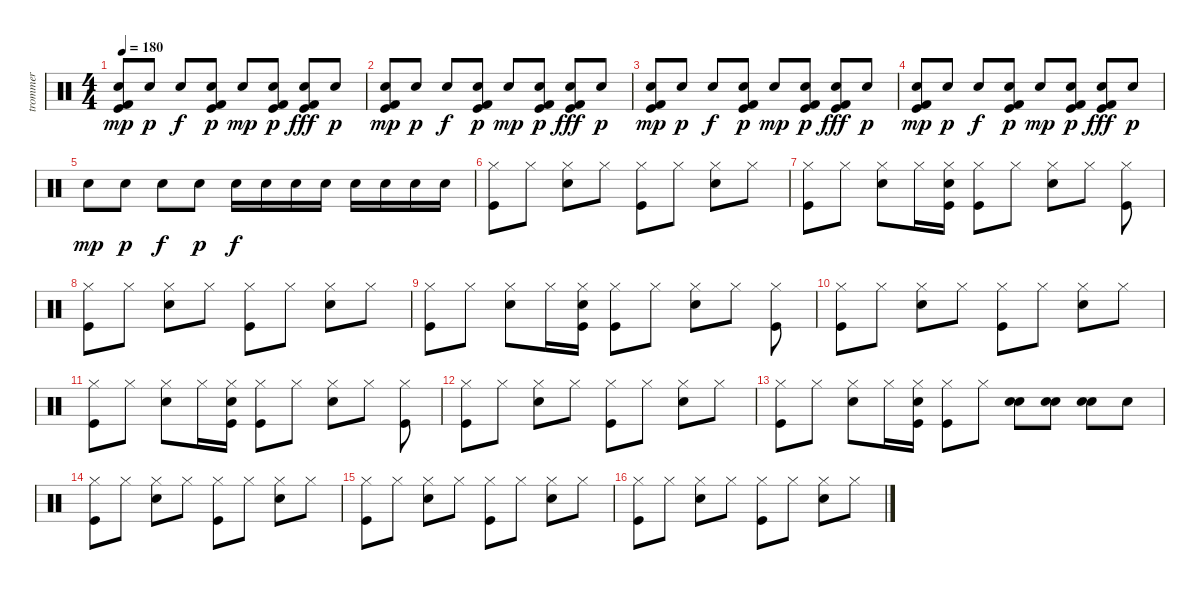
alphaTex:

\track ("trommer" "trommer") {instrument percussion}
\staff {score}
\articulation defaults
\ts (4 4)
\tempo 180
\clef neutral
\ks c
("Kick (hit) 2" "Kick (hit)" "Electric Snare (hit)").8{dy mp} "Electric Snare (hit)".8{dy p} "Electric Snare (hit)".8{dy f} ("Kick (hit) 2" "Kick (hit)" "Electric Snare (hit)").8{dy p} "Electric Snare (hit)".8{dy mp} ("Kick (hit) 2" "Kick (hit)" "Electric Snare (hit)").8{dy p} ("Kick (hit) 2" "Kick (hit)" "Electric Snare (hit)").8{dy fff} "Electric Snare (hit)".8{dy p} |
("Kick (hit) 2" "Kick (hit)" "Electric Snare (hit)").8{dy mp} "Electric Snare (hit)".8{dy p} "Electric Snare (hit)".8{dy f} ("Kick (hit) 2" "Kick (hit)" "Electric Snare (hit)").8{dy p} "Electric Snare (hit)".8{dy mp} ("Kick (hit) 2" "Kick (hit)" "Electric Snare (hit)").8{dy p} ("Kick (hit) 2" "Kick (hit)" "Electric Snare (hit)").8{dy fff} "Electric Snare (hit)".8{dy p} |
("Kick (hit) 2" "Kick (hit)" "Electric Snare (hit)").8{dy mp} "Electric Snare (hit)".8{dy p} "Electric Snare (hit)".8{dy f} ("Kick (hit) 2" "Kick (hit)" "Electric Snare (hit)").8{dy p} "Electric Snare (hit)".8{dy mp} ("Kick (hit) 2" "Kick (hit)" "Electric Snare (hit)").8{dy p} ("Kick (hit) 2" "Kick (hit)" "Electric Snare (hit)").8{dy fff} "Electric Snare (hit)".8{dy p} |
("Kick (hit) 2" "Kick (hit)" "Electric Snare (hit)").8{dy mp} "Electric Snare (hit)".8{dy p} "Electric Snare (hit)".8{dy f} ("Kick (hit) 2" "Kick (hit)" "Electric Snare (hit)").8{dy p} "Electric Snare (hit)".8{dy mp} ("Kick (hit) 2" "Kick (hit)" "Electric Snare (hit)").8{dy p} ("Kick (hit) 2" "Kick (hit)" "Electric Snare (hit)").8{dy fff} "Electric Snare (hit)".8{dy p} |
"Electric Snare (hit)".8{dy mp} "Electric Snare (hit)".8{dy p} "Electric Snare (hit)".8{dy f} "Electric Snare (hit)".8{dy p} "Electric Snare (hit)".16{dy f} "Electric Snare (hit)".16 "Electric Snare (hit)".16 "Electric Snare (hit)".16 "Electric Snare (hit)".16 "Electric Snare (hit)".16 "Electric Snare (hit)".16 "Electric Snare (hit)".16 |
("Kick (hit)" "Hi-Hat (closed)").8 "Hi-Hat (closed)".8 ("Electric Snare (hit)" "Hi-Hat (closed)").8 "Hi-Hat (closed)".8 ("Kick (hit)" "Hi-Hat (closed)").8 "Hi-Hat (closed)".8 ("Electric Snare (hit)" "Hi-Hat (closed)").8 "Hi-Hat (closed)".8 |
("Kick (hit)" "Hi-Hat (closed)").8 "Hi-Hat (closed)".8 ("Electric Snare (hit)" "Hi-Hat (closed)").8 "Hi-Hat (closed)".16 ("Kick (hit)" "Electric Snare (hit)" "Hi-Hat (closed)").16 ("Kick (hit)" "Hi-Hat (closed)").8 "Hi-Hat (closed)".8 ("Electric Snare (hit)" "Hi-Hat (closed)").8 "Hi-Hat (closed)".8 ("Kick (hit)" "Hi-Hat (closed)").8 |
("Kick (hit)" "Hi-Hat (closed)").8 "Hi-Hat (closed)".8 ("Electric Snare (hit)" "Hi-Hat (closed)").8 "Hi-Hat (closed)".8 ("Kick (hit)" "Hi-Hat (closed)").8 "Hi-Hat (closed)".8 ("Electric Snare (hit)" "Hi-Hat (closed)").8 "Hi-Hat (closed)".8 |
("Kick (hit)" "Hi-Hat (closed)").8 "Hi-Hat (closed)".8 ("Electric Snare (hit)" "Hi-Hat (closed)").8 "Hi-Hat (closed)".16 ("Kick (hit)" "Electric Snare (hit)" "Hi-Hat (closed)").16 ("Kick (hit)" "Hi-Hat (closed)").8 "Hi-Hat (closed)".8 ("Electric Snare (hit)" "Hi-Hat (closed)").8 "Hi-Hat (closed)".8 ("Kick (hit)" "Hi-Hat (closed)").8 |
("Kick (hit)" "Hi-Hat (closed)").8 "Hi-Hat (closed)".8 ("Electric Snare (hit)" "Hi-Hat (closed)").8 "Hi-Hat (closed)".8 ("Kick (hit)" "Hi-Hat (closed)").8 "Hi-Hat (closed)".8 ("Electric Snare (hit)" "Hi-Hat (closed)").8 "Hi-Hat (closed)".8 |
("Kick (hit)" "Hi-Hat (closed)").8 "Hi-Hat (closed)".8 ("Electric Snare (hit)" "Hi-Hat (closed)").8 "Hi-Hat (closed)".16 ("Kick (hit)" "Electric Snare (hit)" "Hi-Hat (closed)").16 ("Kick (hit)" "Hi-Hat (closed)").8 "Hi-Hat (closed)".8 ("Electric Snare (hit)" "Hi-Hat (closed)").8 "Hi-Hat (closed)".8 ("Kick (hit)" "Hi-Hat (closed)").8 |
("Kick (hit)" "Hi-Hat (closed)").8 "Hi-Hat (closed)".8 ("Electric Snare (hit)" "Hi-Hat (closed)").8 "Hi-Hat (closed)".8 ("Kick (hit)" "Hi-Hat (closed)").8 "Hi-Hat (closed)".8 ("Electric Snare (hit)" "Hi-Hat (closed)").8 "Hi-Hat (closed)".8 |
("Kick (hit)" "Hi-Hat (closed)").8 "Hi-Hat (closed)".8 ("Electric Snare (hit)" "Hi-Hat (closed)").8 "Hi-Hat (closed)".16 ("Kick (hit)" "Electric Snare (hit)" "Hi-Hat (closed)").16 ("Kick (hit)" "Hi-Hat (closed)").8 "Hi-Hat (closed)".8 ("Electric Snare (hit)" "Electric Snare (hit)").8 ("Electric Snare (hit)" "Electric Snare (hit)").8 ("Electric Snare (hit)" "Electric Snare (hit)").8 "Electric Snare (hit)".8 |
("Kick (hit)" "Hi-Hat (closed)").8 "Hi-Hat (closed)".8 ("Electric Snare (hit)" "Hi-Hat (closed)").8 "Hi-Hat (closed)".8 ("Kick (hit)" "Hi-Hat (closed)").8 "Hi-Hat (closed)".8 ("Electric Snare (hit)" "Hi-Hat (closed)").8 "Hi-Hat (closed)".8 |
("Kick (hit)" "Hi-Hat (closed)").8 "Hi-Hat (closed)".8 ("Electric Snare (hit)" "Hi-Hat (closed)").8 "Hi-Hat (closed)".8 ("Kick (hit)" "Hi-Hat (closed)").8 "Hi-Hat (closed)".8 ("Electric Snare (hit)" "Hi-Hat (closed)").8 "Hi-Hat (closed)".8 |
("Kick (hit)" "Hi-Hat (closed)").8 "Hi-Hat (closed)".8 ("Electric Snare (hit)" "Hi-Hat (closed)").8 "Hi-Hat (closed)".8 ("Kick (hit)" "Hi-Hat (closed)").8 "Hi-Hat (closed)".8 ("Electric Snare (hit)" "Hi-Hat (closed)").8 "Hi-Hat (closed)".8
